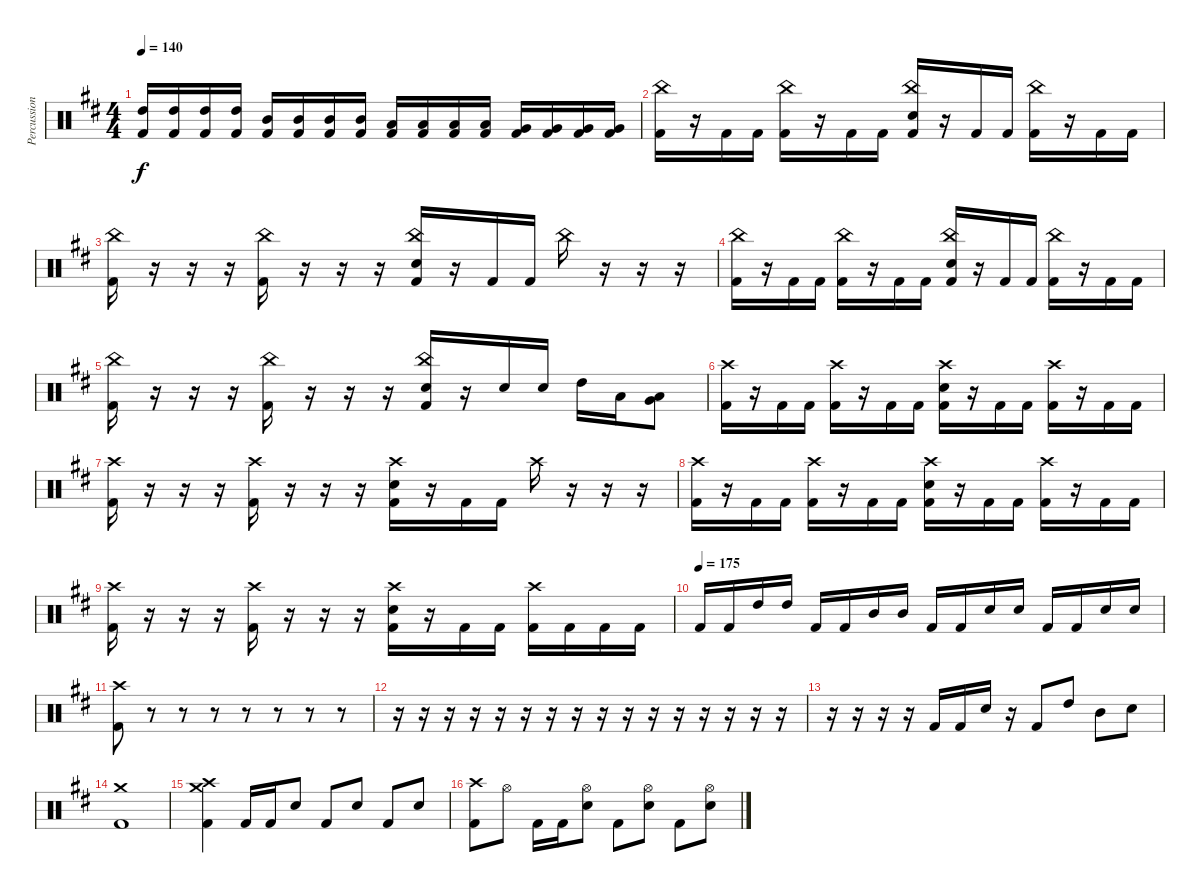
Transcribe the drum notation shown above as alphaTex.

\track ("Percussion" "Percussion") {instrument percussion}
\staff {score}
\articulation defaults
\ts (4 4)
\tempo 140
\clef neutral
\ks bminor
("High Tom (hit)" "Kick (hit) 2").16{dy f} ("High Tom (hit)" "Kick (hit) 2").16 ("High Tom (hit)" "Kick (hit) 2").16 ("High Tom (hit)" "Kick (hit) 2").16 ("Mid Tom (hit)" "Kick (hit) 2").16 ("Mid Tom (hit)" "Kick (hit) 2").16 ("Mid Tom (hit)" "Kick (hit) 2").16 ("Mid Tom (hit)" "Kick (hit) 2").16 ("Low Tom (hit)" "Kick (hit) 2").16 ("Low Tom (hit)" "Kick (hit) 2").16 ("Low Tom (hit)" "Kick (hit) 2").16 ("Low Tom (hit)" "Kick (hit) 2").16 ("Very Low Tom (hit)" "Kick (hit) 2").16 ("Very Low Tom (hit)" "Kick (hit) 2").16 ("Very Low Tom (hit)" "Kick (hit) 2").16 ("Very Low Tom (hit)" "Kick (hit) 2").16 |
("China (hit)" "Kick (hit) 2").16 r.16 "Kick (hit) 2".16 "Kick (hit) 2".16 ("China (hit)" "Kick (hit) 2").16 r.16 "Kick (hit) 2".16 "Kick (hit) 2".16 ("China (hit)" "Electric Snare (hit)" "Kick (hit) 2").16 r.16 "Kick (hit) 2".16 "Kick (hit) 2".16 ("China (hit)" "Kick (hit) 2").16 r.16 "Kick (hit) 2".16 "Kick (hit) 2".16 |
("China (hit)" "Kick (hit) 2").16 r.16 r.16 r.16 ("China (hit)" "Kick (hit) 2").16 r.16 r.16 r.16 ("China (hit)" "Electric Snare (hit)" "Kick (hit) 2").16 r.16 "Kick (hit) 2".16 "Kick (hit) 2".16 "China (hit)".16 r.16 r.16 r.16 |
("China (hit)" "Kick (hit) 2").16 r.16 "Kick (hit) 2".16 "Kick (hit) 2".16 ("China (hit)" "Kick (hit) 2").16 r.16 "Kick (hit) 2".16 "Kick (hit) 2".16 ("China (hit)" "Electric Snare (hit)" "Kick (hit) 2").16 r.16 "Kick (hit) 2".16 "Kick (hit) 2".16 ("China (hit)" "Kick (hit) 2").16 r.16 "Kick (hit) 2".16 "Kick (hit) 2".16 |
("China (hit)" "Kick (hit) 2").16 r.16 r.16 r.16 ("China (hit)" "Kick (hit) 2").16 r.16 r.16 r.16 ("China (hit)" "Electric Snare (hit)" "Kick (hit) 2").16 r.16 "Electric Snare (hit)".16 "Electric Snare (hit)".16 "High Tom (hit)".16 "Low Tom (hit)".16 ("Very Low Tom (hit)" "Low Floor Tom (hit)").8 |
("Crash high (hit)" "Kick (hit) 2").16 r.16 "Kick (hit) 2".16 "Kick (hit) 2".16 ("Crash high (hit)" "Kick (hit) 2").16 r.16 "Kick (hit) 2".16 "Kick (hit) 2".16 ("Crash high (hit)" "Electric Snare (hit)" "Kick (hit) 2").16 r.16 "Kick (hit) 2".16 "Kick (hit) 2".16 ("Crash high (hit)" "Kick (hit) 2").16 r.16 "Kick (hit) 2".16 "Kick (hit) 2".16 |
("Crash high (hit)" "Kick (hit) 2").16 r.16 r.16 r.16 ("Crash high (hit)" "Kick (hit) 2").16 r.16 r.16 r.16 ("Crash high (hit)" "Electric Snare (hit)" "Kick (hit) 2").16 r.16 "Kick (hit) 2".16 "Kick (hit) 2".16 "Crash high (hit)".16 r.16 r.16 r.16 |
("Crash high (hit)" "Kick (hit) 2").16 r.16 "Kick (hit) 2".16 "Kick (hit) 2".16 ("Crash high (hit)" "Kick (hit) 2").16 r.16 "Kick (hit) 2".16 "Kick (hit) 2".16 ("Crash high (hit)" "Electric Snare (hit)" "Kick (hit) 2").16 r.16 "Kick (hit) 2".16 "Kick (hit) 2".16 ("Crash high (hit)" "Kick (hit) 2").16 r.16 "Kick (hit) 2".16 "Kick (hit) 2".16 |
("Crash high (hit)" "Kick (hit) 2").16 r.16 r.16 r.16 ("Crash high (hit)" "Kick (hit) 2").16 r.16 r.16 r.16 ("Crash high (hit)" "Electric Snare (hit)" "Kick (hit) 2").16 r.16 "Kick (hit) 2".16 "Kick (hit) 2".16 ("Crash high (hit)" "Kick (hit) 2").16 "Kick (hit) 2".16 "Kick (hit) 2".16 "Kick (hit) 2".16 |
\tempo (175)
"Kick (hit) 2".16 "Kick (hit) 2".16 "High Tom (hit)".16 "High Tom (hit)".16 "Kick (hit) 2".16 "Kick (hit) 2".16 "Mid Tom (hit)".16 "Mid Tom (hit)".16 "Kick (hit) 2".16 "Kick (hit) 2".16 "Electric Snare (hit)".16 "Electric Snare (hit)".16 "Kick (hit) 2".16 "Kick (hit) 2".16 "Electric Snare (hit)".16 "Electric Snare (hit)".16 |
("Crash high (hit)" "Kick (hit) 2").8 r.8 r.8 r.8 r.8 r.8 r.8 r.8 |
r.16 r.16 r.16 r.16 r.16 r.16 r.16 r.16 r.16 r.16 r.16 r.16 r.16 r.16 r.16 r.16 |
r.16 r.16 r.16 r.16 "Kick (hit) 2".16 "Kick (hit) 2".16 "Electric Snare (hit)".16 r.16 "Kick (hit) 2".8 "High Tom (hit)".8 "Mid Tom (hit)".8 "Electric Snare (hit)".8 |
("Crash medium (hit)" "Kick (hit) 2").1 |
("Crash high (hit)" "Crash medium (hit)" "Kick (hit) 2").4 "Kick (hit) 2".16 "Kick (hit) 2".16 "Electric Snare (hit)".8 "Kick (hit) 2".8 "Electric Snare (hit)".8 "Kick (hit) 2".8 "Electric Snare (hit)".8 |
("Crash high (hit)" "Kick (hit) 2").8 "Hi-Hat (open)".8 "Kick (hit) 2".16 "Kick (hit) 2".16 ("Hi-Hat (open)" "Electric Snare (hit)").8 "Kick (hit) 2".8 ("Hi-Hat (open)" "Electric Snare (hit)").8 "Kick (hit) 2".8 ("Hi-Hat (open)" "Electric Snare (hit)").8
